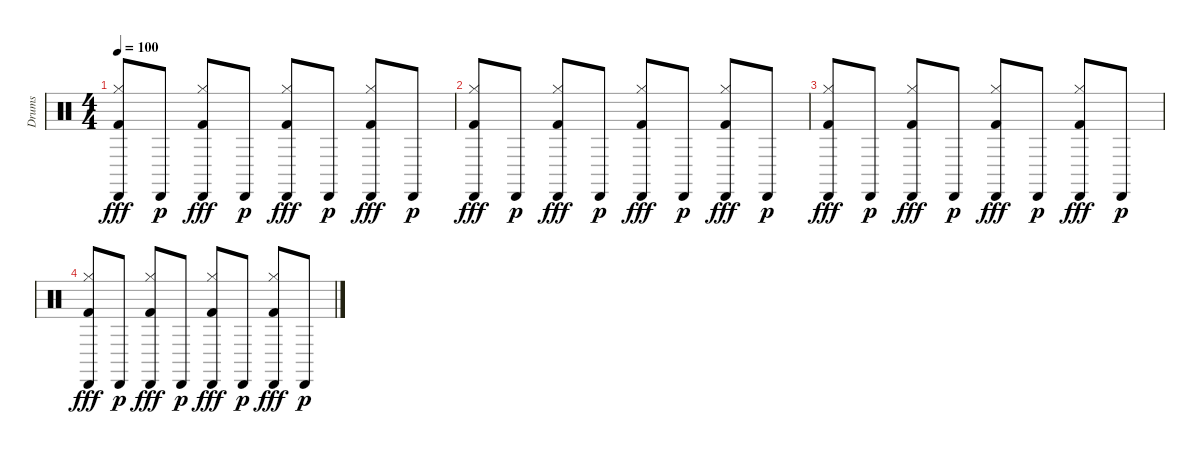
\track ("Drums" "Drums") {instrument percussion}
\staff {score}
\articulation defaults
\ts (4 4)
\tempo 100
\clef neutral
\ks c
("Cabasa (hit)" "Hi-Hat (closed)" "Kick (hit) 2").8{dy fff} "Cabasa (hit)".8{dy p} ("Cabasa (hit)" "Hi-Hat (closed)" "Kick (hit) 2").8{dy fff} "Cabasa (hit)".8{dy p} ("Cabasa (hit)" "Hi-Hat (closed)" "Kick (hit) 2").8{dy fff} "Cabasa (hit)".8{dy p} ("Cabasa (hit)" "Hi-Hat (closed)" "Kick (hit) 2").8{dy fff} "Cabasa (hit)".8{dy p} |
("Cabasa (hit)" "Hi-Hat (closed)" "Kick (hit) 2").8{dy fff} "Cabasa (hit)".8{dy p} ("Cabasa (hit)" "Hi-Hat (closed)" "Kick (hit) 2").8{dy fff} "Cabasa (hit)".8{dy p} ("Cabasa (hit)" "Hi-Hat (closed)" "Kick (hit) 2").8{dy fff} "Cabasa (hit)".8{dy p} ("Cabasa (hit)" "Hi-Hat (closed)" "Kick (hit) 2").8{dy fff} "Cabasa (hit)".8{dy p} |
("Cabasa (hit)" "Hi-Hat (closed)" "Kick (hit) 2").8{dy fff} "Cabasa (hit)".8{dy p} ("Cabasa (hit)" "Hi-Hat (closed)" "Kick (hit) 2").8{dy fff} "Cabasa (hit)".8{dy p} ("Cabasa (hit)" "Hi-Hat (closed)" "Kick (hit) 2").8{dy fff} "Cabasa (hit)".8{dy p} ("Cabasa (hit)" "Hi-Hat (closed)" "Kick (hit) 2").8{dy fff} "Cabasa (hit)".8{dy p} |
("Cabasa (hit)" "Hi-Hat (closed)" "Kick (hit) 2").8{dy fff} "Cabasa (hit)".8{dy p} ("Cabasa (hit)" "Hi-Hat (closed)" "Kick (hit) 2").8{dy fff} "Cabasa (hit)".8{dy p} ("Cabasa (hit)" "Hi-Hat (closed)" "Kick (hit) 2").8{dy fff} "Cabasa (hit)".8{dy p} ("Cabasa (hit)" "Hi-Hat (closed)" "Kick (hit) 2").8{dy fff} "Cabasa (hit)".8{dy p}
